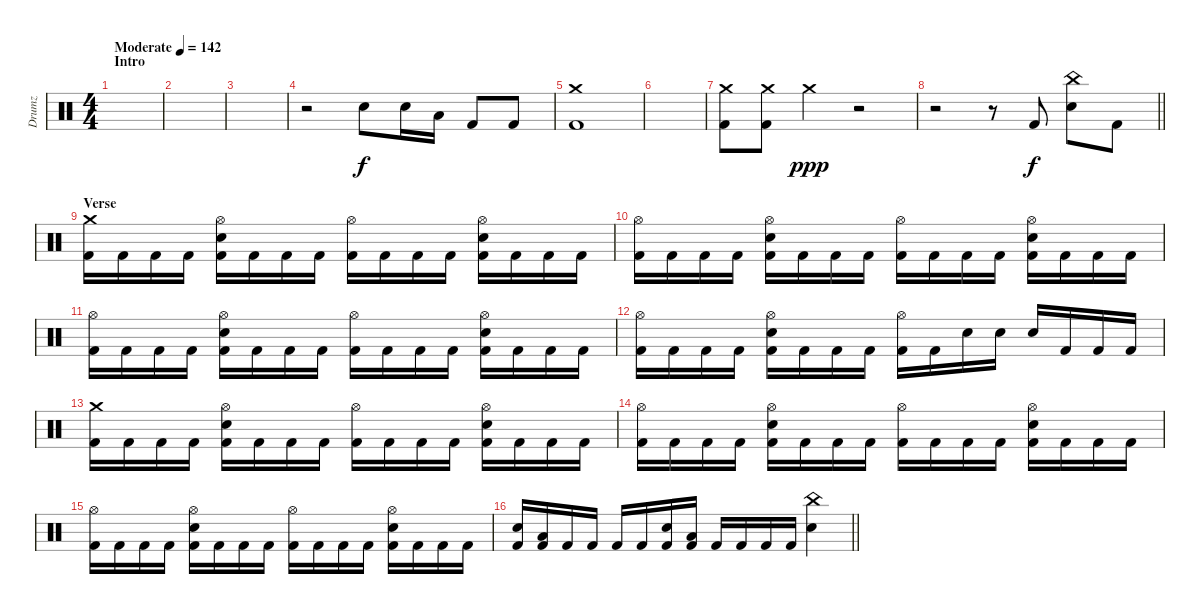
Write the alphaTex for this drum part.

\track ("Drumz" "Drumz") {instrument percussion}
\staff {score}
\articulation defaults
\ts (4 4)
\section ("" "Intro")
\tempo (142 "Moderate")
\clef neutral
\ks c
|
|
|
r.2 "Electric Snare (hit)".8 "Electric Snare (hit)".16 "Low Floor Tom (hit)".16 "Kick (hit) 2".8 "Kick (hit) 2".8 |
("Crash medium (hit)" "Kick (hit) 2").1 |
|
("Crash medium (hit)" "Kick (hit) 2").8 ("Crash medium (hit)" "Kick (hit) 2").8 "Crash medium (hit)".4{dy ppp} r.2 |
\barLineRight lightlight
r.2 r.8 "Kick (hit) 2".8{dy f} ("China (hit)" "Electric Snare (hit)").8 "Kick (hit) 2".8 |
\section ("" "Verse")
("Crash medium (hit)" "Kick (hit) 2").16 "Kick (hit) 2".16 "Kick (hit) 2".16 "Kick (hit) 2".16 ("Hi-Hat (open)" "Electric Snare (hit)" "Kick (hit) 2").16 "Kick (hit) 2".16 "Kick (hit) 2".16 "Kick (hit) 2".16 ("Hi-Hat (open)" "Kick (hit) 2").16 "Kick (hit) 2".16 "Kick (hit) 2".16 "Kick (hit) 2".16 ("Hi-Hat (open)" "Electric Snare (hit)" "Kick (hit) 2").16 "Kick (hit) 2".16 "Kick (hit) 2".16 "Kick (hit) 2".16 |
("Hi-Hat (open)" "Kick (hit) 2").16 "Kick (hit) 2".16 "Kick (hit) 2".16 "Kick (hit) 2".16 ("Hi-Hat (open)" "Electric Snare (hit)" "Kick (hit) 2").16 "Kick (hit) 2".16 "Kick (hit) 2".16 "Kick (hit) 2".16 ("Hi-Hat (open)" "Kick (hit) 2").16 "Kick (hit) 2".16 "Kick (hit) 2".16 "Kick (hit) 2".16 ("Hi-Hat (open)" "Electric Snare (hit)" "Kick (hit) 2").16 "Kick (hit) 2".16 "Kick (hit) 2".16 "Kick (hit) 2".16 |
("Hi-Hat (open)" "Kick (hit) 2").16 "Kick (hit) 2".16 "Kick (hit) 2".16 "Kick (hit) 2".16 ("Hi-Hat (open)" "Electric Snare (hit)" "Kick (hit) 2").16 "Kick (hit) 2".16 "Kick (hit) 2".16 "Kick (hit) 2".16 ("Hi-Hat (open)" "Kick (hit) 2").16 "Kick (hit) 2".16 "Kick (hit) 2".16 "Kick (hit) 2".16 ("Hi-Hat (open)" "Electric Snare (hit)" "Kick (hit) 2").16 "Kick (hit) 2".16 "Kick (hit) 2".16 "Kick (hit) 2".16 |
("Hi-Hat (open)" "Kick (hit) 2").16 "Kick (hit) 2".16 "Kick (hit) 2".16 "Kick (hit) 2".16 ("Hi-Hat (open)" "Electric Snare (hit)" "Kick (hit) 2").16 "Kick (hit) 2".16 "Kick (hit) 2".16 "Kick (hit) 2".16 ("Hi-Hat (open)" "Kick (hit) 2").16 "Kick (hit) 2".16 "Electric Snare (hit)".16 "Electric Snare (hit)".16 "Electric Snare (hit)".16 "Kick (hit) 2".16 "Kick (hit) 2".16 "Kick (hit) 2".16 |
("Crash medium (hit)" "Kick (hit) 2").16 "Kick (hit) 2".16 "Kick (hit) 2".16 "Kick (hit) 2".16 ("Hi-Hat (open)" "Electric Snare (hit)" "Kick (hit) 2").16 "Kick (hit) 2".16 "Kick (hit) 2".16 "Kick (hit) 2".16 ("Hi-Hat (open)" "Kick (hit) 2").16 "Kick (hit) 2".16 "Kick (hit) 2".16 "Kick (hit) 2".16 ("Hi-Hat (open)" "Electric Snare (hit)" "Kick (hit) 2").16 "Kick (hit) 2".16 "Kick (hit) 2".16 "Kick (hit) 2".16 |
("Hi-Hat (open)" "Kick (hit) 2").16 "Kick (hit) 2".16 "Kick (hit) 2".16 "Kick (hit) 2".16 ("Hi-Hat (open)" "Electric Snare (hit)" "Kick (hit) 2").16 "Kick (hit) 2".16 "Kick (hit) 2".16 "Kick (hit) 2".16 ("Hi-Hat (open)" "Kick (hit) 2").16 "Kick (hit) 2".16 "Kick (hit) 2".16 "Kick (hit) 2".16 ("Hi-Hat (open)" "Electric Snare (hit)" "Kick (hit) 2").16 "Kick (hit) 2".16 "Kick (hit) 2".16 "Kick (hit) 2".16 |
("Hi-Hat (open)" "Kick (hit) 2").16 "Kick (hit) 2".16 "Kick (hit) 2".16 "Kick (hit) 2".16 ("Hi-Hat (open)" "Electric Snare (hit)" "Kick (hit) 2").16 "Kick (hit) 2".16 "Kick (hit) 2".16 "Kick (hit) 2".16 ("Hi-Hat (open)" "Kick (hit) 2").16 "Kick (hit) 2".16 "Kick (hit) 2".16 "Kick (hit) 2".16 ("Hi-Hat (open)" "Electric Snare (hit)" "Kick (hit) 2").16 "Kick (hit) 2".16 "Kick (hit) 2".16 "Kick (hit) 2".16 |
\barLineRight lightlight
("Electric Snare (hit)" "Kick (hit) 2").16 ("Low Floor Tom (hit)" "Kick (hit) 2").16 "Kick (hit) 2".16 "Kick (hit) 2".16 "Kick (hit) 2".16 "Kick (hit) 2".16 ("Electric Snare (hit)" "Kick (hit) 2").16 ("Low Floor Tom (hit)" "Kick (hit) 2").16 "Kick (hit) 2".16 "Kick (hit) 2".16 "Kick (hit) 2".16 "Kick (hit) 2".16 ("China (hit)" "Electric Snare (hit)").4
